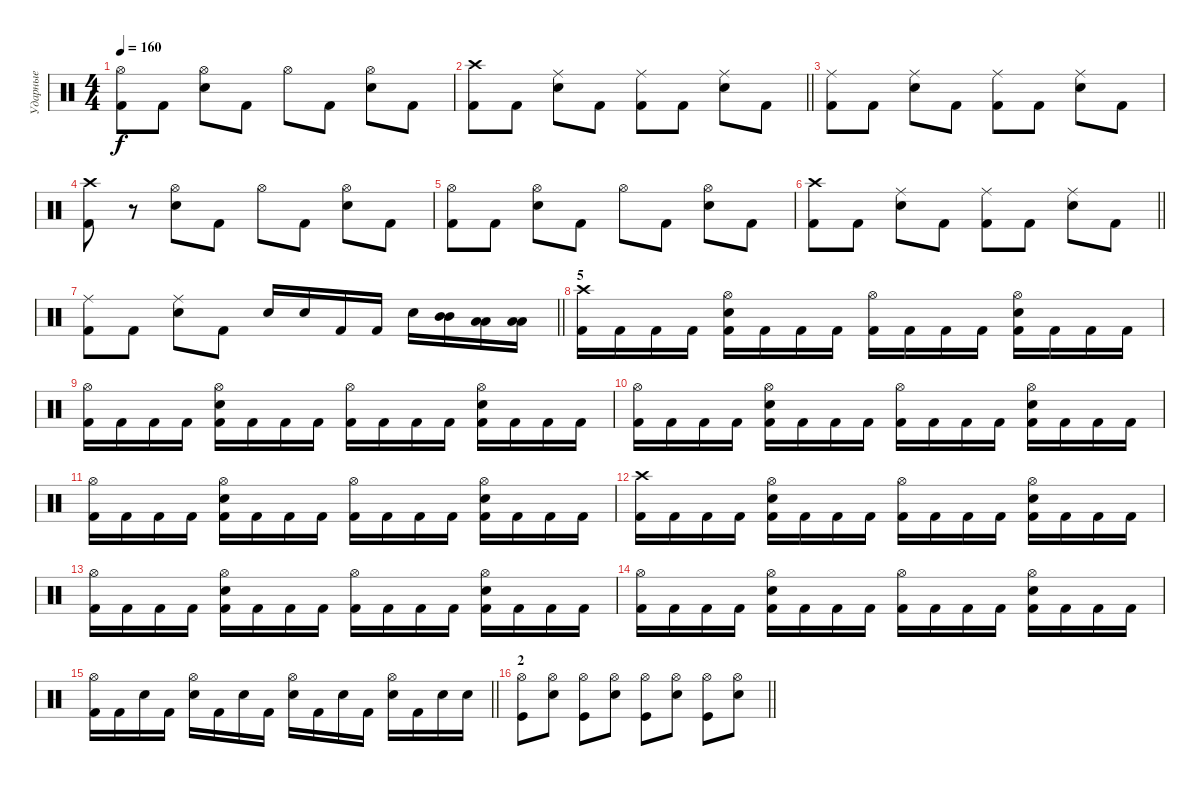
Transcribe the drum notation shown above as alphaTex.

\track ("Ударные" "Ударные") {instrument percussion}
\staff {score}
\articulation defaults
\ts (4 4)
\tempo 160
\clef neutral
\ks c
("Hi-Hat (open)" "Kick (hit) 2").8{dy f} "Kick (hit) 2".8 ("Hi-Hat (open)" "Electric Snare (hit)").8 "Kick (hit) 2".8 "Hi-Hat (open)".8 "Kick (hit) 2".8 ("Hi-Hat (open)" "Electric Snare (hit)").8 "Kick (hit) 2".8 |
\barLineRight lightlight
("Crash high (hit)" "Kick (hit) 2").8 "Kick (hit) 2".8 ("Ride (middle)" "Electric Snare (hit)").8 "Kick (hit) 2".8 ("Ride (middle)" "Kick (hit) 2").8 "Kick (hit) 2".8 ("Ride (middle)" "Electric Snare (hit)").8 "Kick (hit) 2".8 |
\section ("" "")
("Ride (middle)" "Kick (hit) 2").8 "Kick (hit) 2".8 ("Ride (middle)" "Electric Snare (hit)").8 "Kick (hit) 2".8 ("Ride (middle)" "Kick (hit) 2").8 "Kick (hit) 2".8 ("Ride (middle)" "Electric Snare (hit)").8 "Kick (hit) 2".8 |
("Crash high (hit)" "Kick (hit) 2").8 r.8 ("Hi-Hat (open)" "Electric Snare (hit)").8 "Kick (hit) 2".8 "Hi-Hat (open)".8 "Kick (hit) 2".8 ("Hi-Hat (open)" "Electric Snare (hit)").8 "Kick (hit) 2".8 |
("Hi-Hat (open)" "Kick (hit) 2").8 "Kick (hit) 2".8 ("Hi-Hat (open)" "Electric Snare (hit)").8 "Kick (hit) 2".8 "Hi-Hat (open)".8 "Kick (hit) 2".8 ("Hi-Hat (open)" "Electric Snare (hit)").8 "Kick (hit) 2".8 |
\barLineRight lightlight
("Crash high (hit)" "Kick (hit) 2").8 "Kick (hit) 2".8 ("Ride (middle)" "Electric Snare (hit)").8 "Kick (hit) 2".8 ("Ride (middle)" "Kick (hit) 2").8 "Kick (hit) 2".8 ("Ride (middle)" "Electric Snare (hit)").8 "Kick (hit) 2".8 |
\section ("" "")
\barLineRight lightlight
("Ride (middle)" "Kick (hit) 2").8 "Kick (hit) 2".8 ("Ride (middle)" "Electric Snare (hit)").8 "Kick (hit) 2".8 "Electric Snare (hit)".16 "Electric Snare (hit)".16 "Kick (hit) 2".16 "Kick (hit) 2".16 "Electric Snare (hit)".16 ("Mid Tom (hit)" "Mid Tom (hit)").16 ("Low Tom (hit)" "Low Tom (hit)").16 ("Low Tom (hit)" "Low Tom (hit)").16 |
\section ("" "5")
("Crash high (hit)" "Kick (hit) 2").16 "Kick (hit) 2".16 "Kick (hit) 2".16 "Kick (hit) 2".16 ("Hi-Hat (open)" "Electric Snare (hit)" "Kick (hit) 2").16 "Kick (hit) 2".16 "Kick (hit) 2".16 "Kick (hit) 2".16 ("Hi-Hat (open)" "Kick (hit) 2").16 "Kick (hit) 2".16 "Kick (hit) 2".16 "Kick (hit) 2".16 ("Hi-Hat (open)" "Electric Snare (hit)" "Kick (hit) 2").16 "Kick (hit) 2".16 "Kick (hit) 2".16 "Kick (hit) 2".16 |
("Hi-Hat (open)" "Kick (hit) 2").16 "Kick (hit) 2".16 "Kick (hit) 2".16 "Kick (hit) 2".16 ("Hi-Hat (open)" "Electric Snare (hit)" "Kick (hit) 2").16 "Kick (hit) 2".16 "Kick (hit) 2".16 "Kick (hit) 2".16 ("Hi-Hat (open)" "Kick (hit) 2").16 "Kick (hit) 2".16 "Kick (hit) 2".16 "Kick (hit) 2".16 ("Hi-Hat (open)" "Electric Snare (hit)" "Kick (hit) 2").16 "Kick (hit) 2".16 "Kick (hit) 2".16 "Kick (hit) 2".16 |
("Hi-Hat (open)" "Kick (hit) 2").16 "Kick (hit) 2".16 "Kick (hit) 2".16 "Kick (hit) 2".16 ("Hi-Hat (open)" "Electric Snare (hit)" "Kick (hit) 2").16 "Kick (hit) 2".16 "Kick (hit) 2".16 "Kick (hit) 2".16 ("Hi-Hat (open)" "Kick (hit) 2").16 "Kick (hit) 2".16 "Kick (hit) 2".16 "Kick (hit) 2".16 ("Hi-Hat (open)" "Electric Snare (hit)" "Kick (hit) 2").16 "Kick (hit) 2".16 "Kick (hit) 2".16 "Kick (hit) 2".16 |
("Hi-Hat (open)" "Kick (hit) 2").16 "Kick (hit) 2".16 "Kick (hit) 2".16 "Kick (hit) 2".16 ("Hi-Hat (open)" "Electric Snare (hit)" "Kick (hit) 2").16 "Kick (hit) 2".16 "Kick (hit) 2".16 "Kick (hit) 2".16 ("Hi-Hat (open)" "Kick (hit) 2").16 "Kick (hit) 2".16 "Kick (hit) 2".16 "Kick (hit) 2".16 ("Hi-Hat (open)" "Electric Snare (hit)" "Kick (hit) 2").16 "Kick (hit) 2".16 "Kick (hit) 2".16 "Kick (hit) 2".16 |
("Crash high (hit)" "Kick (hit) 2").16 "Kick (hit) 2".16 "Kick (hit) 2".16 "Kick (hit) 2".16 ("Hi-Hat (open)" "Electric Snare (hit)" "Kick (hit) 2").16 "Kick (hit) 2".16 "Kick (hit) 2".16 "Kick (hit) 2".16 ("Hi-Hat (open)" "Kick (hit) 2").16 "Kick (hit) 2".16 "Kick (hit) 2".16 "Kick (hit) 2".16 ("Hi-Hat (open)" "Electric Snare (hit)" "Kick (hit) 2").16 "Kick (hit) 2".16 "Kick (hit) 2".16 "Kick (hit) 2".16 |
("Hi-Hat (open)" "Kick (hit) 2").16 "Kick (hit) 2".16 "Kick (hit) 2".16 "Kick (hit) 2".16 ("Hi-Hat (open)" "Electric Snare (hit)" "Kick (hit) 2").16 "Kick (hit) 2".16 "Kick (hit) 2".16 "Kick (hit) 2".16 ("Hi-Hat (open)" "Kick (hit) 2").16 "Kick (hit) 2".16 "Kick (hit) 2".16 "Kick (hit) 2".16 ("Hi-Hat (open)" "Electric Snare (hit)" "Kick (hit) 2").16 "Kick (hit) 2".16 "Kick (hit) 2".16 "Kick (hit) 2".16 |
("Hi-Hat (open)" "Kick (hit) 2").16 "Kick (hit) 2".16 "Kick (hit) 2".16 "Kick (hit) 2".16 ("Hi-Hat (open)" "Electric Snare (hit)" "Kick (hit) 2").16 "Kick (hit) 2".16 "Kick (hit) 2".16 "Kick (hit) 2".16 ("Hi-Hat (open)" "Kick (hit) 2").16 "Kick (hit) 2".16 "Kick (hit) 2".16 "Kick (hit) 2".16 ("Hi-Hat (open)" "Electric Snare (hit)" "Kick (hit) 2").16 "Kick (hit) 2".16 "Kick (hit) 2".16 "Kick (hit) 2".16 |
\barLineRight lightlight
("Hi-Hat (open)" "Kick (hit) 2").16 "Kick (hit) 2".16 "Electric Snare (hit)".16 "Kick (hit) 2".16 ("Hi-Hat (open)" "Electric Snare (hit)").16 "Kick (hit) 2".16 "Electric Snare (hit)".16 "Kick (hit) 2".16 ("Hi-Hat (open)" "Electric Snare (hit)").16 "Kick (hit) 2".16 "Electric Snare (hit)".16 "Kick (hit) 2".16 ("Hi-Hat (open)" "Electric Snare (hit)").16 "Kick (hit) 2".16 "Electric Snare (hit)".16 "Electric Snare (hit)".16 |
\section ("" "2")
\barLineRight lightlight
("Hi-Hat (open)" "Kick (hit)").8 ("Hi-Hat (open)" "Electric Snare (hit)").8 ("Hi-Hat (open)" "Kick (hit)").8 ("Hi-Hat (open)" "Electric Snare (hit)").8 ("Hi-Hat (open)" "Kick (hit)").8 ("Hi-Hat (open)" "Electric Snare (hit)").8 ("Hi-Hat (open)" "Kick (hit)").8 ("Hi-Hat (open)" "Electric Snare (hit)").8
